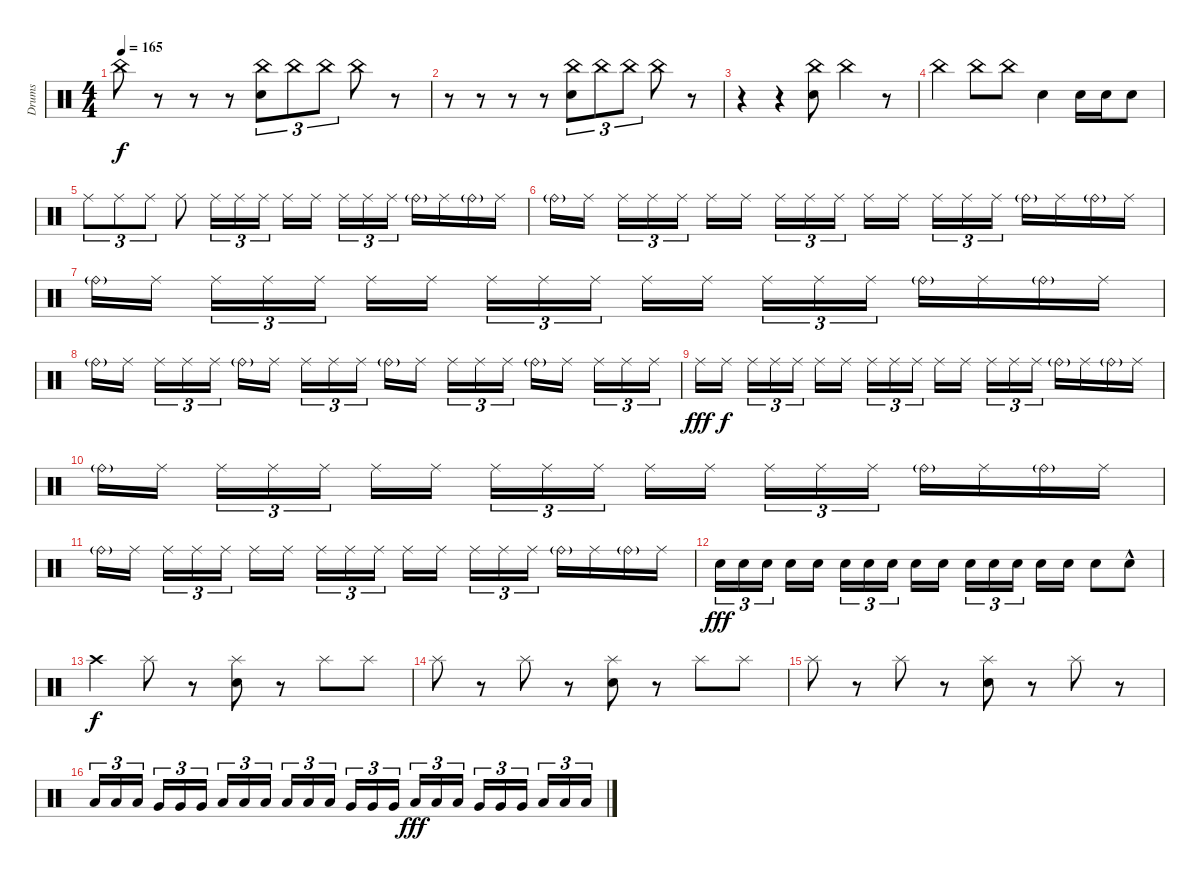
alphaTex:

\track ("Drums" "Drums") {instrument percussion}
\staff {score}
\articulation defaults
\ts (4 4)
\tempo 165
\clef neutral
\ks c "China (hit)".8{dy f}
r.8 r.8 r.8 ("China (hit)" "Electric Snare (hit)").8{tu (3 2)} "China (hit)".8{tu (3 2)} "China (hit)".8{tu (3 2)} "China (hit)".8 r.8 |
r.8 r.8 r.8 r.8 ("China (hit)" "Electric Snare (hit)").8{tu (3 2)} "China (hit)".8{tu (3 2)} "China (hit)".8{tu (3 2)} "China (hit)".8 r.8 |
r.4 r.4 ("China (hit)" "Electric Snare (hit)").8 "China (hit)".4 r.8 |
"China (hit)".4 "China (hit)".8 "China (hit)".8 "Electric Snare (hit)".4 "Electric Snare (hit)".16 "Electric Snare (hit)".16 "Electric Snare (hit)".8 |
"Ride (middle)".8{tu (3 2)} "Ride (middle)".8{tu (3 2)} "Ride (middle)".8{tu (3 2)} "Ride (middle)".8 "Ride (middle)".16{tu (3 2)} "Ride (middle)".16{tu (3 2)} "Ride (middle)".16{tu (3 2)} "Ride (middle)".16 "Ride (middle)".16{beam splitsecondary} "Ride (middle)".16{tu (3 2)} "Ride (middle)".16{tu (3 2)} "Ride (middle)".16{tu (3 2)} "Ride (bell)"{g}.16 "Ride (middle)".16 "Ride (bell)"{g}.16 "Ride (middle)".16 |
"Ride (bell)"{g}.16 "Ride (middle)".16{beam splitsecondary} "Ride (middle)".16{tu (3 2)} "Ride (middle)".16{tu (3 2)} "Ride (middle)".16{tu (3 2)} "Ride (middle)".16 "Ride (middle)".16{beam splitsecondary} "Ride (middle)".16{tu (3 2)} "Ride (middle)".16{tu (3 2)} "Ride (middle)".16{tu (3 2)} "Ride (middle)".16 "Ride (middle)".16{beam splitsecondary} "Ride (middle)".16{tu (3 2)} "Ride (middle)".16{tu (3 2)} "Ride (middle)".16{tu (3 2)} "Ride (bell)"{g}.16 "Ride (middle)".16 "Ride (bell)"{g}.16 "Ride (middle)".16 |
"Ride (bell)"{g}.16 "Ride (middle)".16{beam splitsecondary} "Ride (middle)".16{tu (3 2)} "Ride (middle)".16{tu (3 2)} "Ride (middle)".16{tu (3 2)} "Ride (middle)".16 "Ride (middle)".16{beam splitsecondary} "Ride (middle)".16{tu (3 2)} "Ride (middle)".16{tu (3 2)} "Ride (middle)".16{tu (3 2)} "Ride (middle)".16 "Ride (middle)".16{beam splitsecondary} "Ride (middle)".16{tu (3 2)} "Ride (middle)".16{tu (3 2)} "Ride (middle)".16{tu (3 2)} "Ride (bell)"{g}.16 "Ride (middle)".16 "Ride (bell)"{g}.16 "Ride (middle)".16 |
"Ride (bell)"{g}.16 "Ride (middle)".16{beam splitsecondary} "Ride (middle)".16{tu (3 2)} "Ride (middle)".16{tu (3 2)} "Ride (middle)".16{tu (3 2)} "Ride (bell)"{g}.16 "Ride (middle)".16{beam splitsecondary} "Ride (middle)".16{tu (3 2)} "Ride (middle)".16{tu (3 2)} "Ride (middle)".16{tu (3 2)} "Ride (bell)"{g}.16 "Ride (middle)".16{beam splitsecondary} "Ride (middle)".16{tu (3 2)} "Ride (middle)".16{tu (3 2)} "Ride (middle)".16{tu (3 2)} "Ride (bell)"{g}.16 "Ride (middle)".16{beam splitsecondary} "Ride (middle)".16{tu (3 2)} "Ride (middle)".16{tu (3 2)} "Ride (middle)".16{tu (3 2)} |
"Ride (middle)".16{dy fff} "Ride (middle)".16{dy f beam splitsecondary} "Ride (middle)".16{tu (3 2)} "Ride (middle)".16{tu (3 2)} "Ride (middle)".16{tu (3 2)} "Ride (middle)".16 "Ride (middle)".16{beam splitsecondary} "Ride (middle)".16{tu (3 2)} "Ride (middle)".16{tu (3 2)} "Ride (middle)".16{tu (3 2)} "Ride (middle)".16 "Ride (middle)".16{beam splitsecondary} "Ride (middle)".16{tu (3 2)} "Ride (middle)".16{tu (3 2)} "Ride (middle)".16{tu (3 2)} "Ride (bell)"{g}.16 "Ride (middle)".16 "Ride (bell)"{g}.16 "Ride (middle)".16 |
"Ride (bell)"{g}.16 "Ride (middle)".16{beam splitsecondary} "Ride (middle)".16{tu (3 2)} "Ride (middle)".16{tu (3 2)} "Ride (middle)".16{tu (3 2)} "Ride (middle)".16 "Ride (middle)".16{beam splitsecondary} "Ride (middle)".16{tu (3 2)} "Ride (middle)".16{tu (3 2)} "Ride (middle)".16{tu (3 2)} "Ride (middle)".16 "Ride (middle)".16{beam splitsecondary} "Ride (middle)".16{tu (3 2)} "Ride (middle)".16{tu (3 2)} "Ride (middle)".16{tu (3 2)} "Ride (bell)"{g}.16 "Ride (middle)".16 "Ride (bell)"{g}.16 "Ride (middle)".16 |
"Ride (bell)"{g}.16 "Ride (middle)".16{beam splitsecondary} "Ride (middle)".16{tu (3 2)} "Ride (middle)".16{tu (3 2)} "Ride (middle)".16{tu (3 2)} "Ride (middle)".16 "Ride (middle)".16{beam splitsecondary} "Ride (middle)".16{tu (3 2)} "Ride (middle)".16{tu (3 2)} "Ride (middle)".16{tu (3 2)} "Ride (middle)".16 "Ride (middle)".16{beam splitsecondary} "Ride (middle)".16{tu (3 2)} "Ride (middle)".16{tu (3 2)} "Ride (middle)".16{tu (3 2)} "Ride (bell)"{g}.16 "Ride (middle)".16 "Ride (bell)"{g}.16 "Ride (middle)".16 |
"Electric Snare (hit)".16{tu (3 2) dy fff} "Electric Snare (hit)".16{tu (3 2)} "Electric Snare (hit)".16{tu (3 2) beam splitsecondary} "Electric Snare (hit)".16 "Electric Snare (hit)".16 "Electric Snare (hit)".16{tu (3 2)} "Electric Snare (hit)".16{tu (3 2)} "Electric Snare (hit)".16{tu (3 2) beam splitsecondary} "Electric Snare (hit)".16 "Electric Snare (hit)".16 "Electric Snare (hit)".16{tu (3 2)} "Electric Snare (hit)".16{tu (3 2)} "Electric Snare (hit)".16{tu (3 2) beam splitsecondary} "Electric Snare (hit)".16 "Electric Snare (hit)".16 "Electric Snare (hit)".8 "Electric Snare (hit)"{hac}.8 |
"Crash high (hit)".4{dy f} "Splash (hit)".8 r.8 ("Splash (hit)" "Electric Snare (hit)").8 r.8 "Splash (hit)".8 "Splash (hit)".8 |
"Splash (hit)".8{volume 16} r.8 "Splash (hit)".8 r.8 ("Splash (hit)" "Electric Snare (hit)").8{volume 15} r.8 "Splash (hit)".8 "Splash (hit)".8 |
"Splash (hit)".8{volume 14} r.8 "Splash (hit)".8 r.8 ("Splash (hit)" "Electric Snare (hit)").8{volume 13} r.8 "Splash (hit)".8 r.8 |
"Low Tom (hit)".16{tu (3 2) volume 12} "Low Tom (hit)".16{tu (3 2)} "Low Tom (hit)".16{tu (3 2) beam splitsecondary} "Very Low Tom (hit)".16{tu (3 2)} "Very Low Tom (hit)".16{tu (3 2)} "Very Low Tom (hit)".16{tu (3 2)} "Low Floor Tom (hit)".16{tu (3 2)} "Low Floor Tom (hit)".16{tu (3 2)} "Low Floor Tom (hit)".16{tu (3 2) beam splitsecondary} "Low Tom (hit)".16{tu (3 2)} "Low Tom (hit)".16{tu (3 2)} "Low Tom (hit)".16{tu (3 2)} "Very Low Tom (hit)".16{tu (3 2) volume 11} "Very Low Tom (hit)".16{tu (3 2)} "Very Low Tom (hit)".16{tu (3 2) beam splitsecondary} "Low Floor Tom (hit)".16{tu (3 2) dy fff} "Low Floor Tom (hit)".16{tu (3 2)} "Low Floor Tom (hit)".16{tu (3 2)} "Very Low Tom (hit)".16{tu (3 2)} "Very Low Tom (hit)".16{tu (3 2)} "Very Low Tom (hit)".16{tu (3 2) beam splitsecondary} "Low Floor Tom (hit)".16{tu (3 2)} "Low Floor Tom (hit)".16{tu (3 2)} "Low Floor Tom (hit)".16{tu (3 2)}
